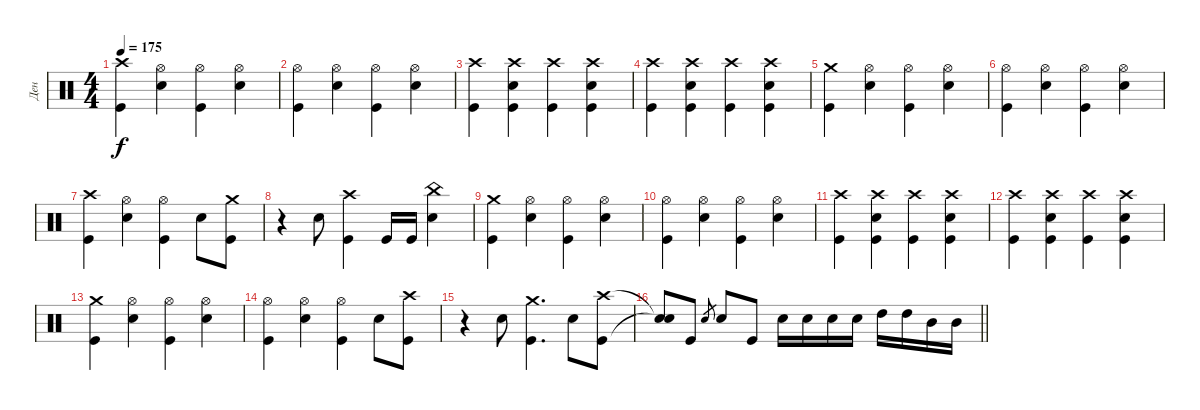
\track ("Ден" "Ден") {instrument percussion}
\staff {score}
\articulation defaults
\ts (4 4)
\tempo 175
\clef neutral
\ks c
("Crash high (hit)" "Kick (hit)").4{dy f} ("Hi-Hat (open)" "Snare (hit) 2").4 ("Hi-Hat (open)" "Kick (hit)").4 ("Hi-Hat (open)" "Snare (hit) 2").4 |
("Hi-Hat (open)" "Kick (hit)").4 ("Hi-Hat (open)" "Snare (hit) 2").4 ("Hi-Hat (open)" "Kick (hit)").4 ("Hi-Hat (open)" "Snare (hit) 2").4 |
("Crash high (hit)" "Kick (hit)").4 ("Crash high (hit)" "Snare (hit) 2" "Kick (hit)").4 ("Crash high (hit)" "Kick (hit)").4 ("Crash high (hit)" "Snare (hit) 2" "Kick (hit)").4 |
("Crash high (hit)" "Kick (hit)").4 ("Crash high (hit)" "Snare (hit) 2" "Kick (hit)").4 ("Crash high (hit)" "Kick (hit)").4 ("Crash high (hit)" "Snare (hit) 2" "Kick (hit)").4 |
("Crash medium (hit)" "Kick (hit)").4 ("Hi-Hat (open)" "Snare (hit) 2").4 ("Hi-Hat (open)" "Kick (hit)").4 ("Hi-Hat (open)" "Snare (hit) 2").4 |
("Hi-Hat (open)" "Kick (hit)").4 ("Hi-Hat (open)" "Snare (hit) 2").4 ("Hi-Hat (open)" "Kick (hit)").4 ("Hi-Hat (open)" "Snare (hit) 2").4 |
("Crash high (hit)" "Kick (hit)").4 ("Hi-Hat (open)" "Snare (hit) 2").4 ("Hi-Hat (open)" "Kick (hit)").4 "Snare (hit) 2".8 ("Crash medium (hit)" "Kick (hit)").8 |
r.4 "Snare (hit) 2".8 ("Crash high (hit)" "Kick (hit)").4 "Kick (hit)".16 "Kick (hit)".16 ("China (hit)" "Snare (hit) 2").4 |
("Crash medium (hit)" "Kick (hit)").4 ("Hi-Hat (open)" "Snare (hit) 2").4 ("Hi-Hat (open)" "Kick (hit)").4 ("Hi-Hat (open)" "Snare (hit) 2").4 |
("Hi-Hat (open)" "Kick (hit)").4 ("Hi-Hat (open)" "Snare (hit) 2").4 ("Hi-Hat (open)" "Kick (hit)").4 ("Hi-Hat (open)" "Snare (hit) 2").4 |
("Crash high (hit)" "Kick (hit)").4 ("Crash high (hit)" "Snare (hit) 2" "Kick (hit)").4 ("Crash high (hit)" "Kick (hit)").4 ("Crash high (hit)" "Snare (hit) 2" "Kick (hit)").4 |
("Crash high (hit)" "Kick (hit)").4 ("Crash high (hit)" "Snare (hit) 2" "Kick (hit)").4 ("Crash high (hit)" "Kick (hit)").4 ("Crash high (hit)" "Snare (hit) 2" "Kick (hit)").4 |
("Crash medium (hit)" "Kick (hit)").4 ("Hi-Hat (open)" "Snare (hit) 2").4 ("Hi-Hat (open)" "Kick (hit)").4 ("Hi-Hat (open)" "Snare (hit) 2").4 |
("Hi-Hat (open)" "Kick (hit)").4 ("Hi-Hat (open)" "Snare (hit) 2").4 ("Hi-Hat (open)" "Kick (hit)").4 "Snare (hit) 2".8 ("Crash high (hit)" "Kick (hit)").8 |
r.4 "Snare (hit) 2".8 ("Crash medium (hit)" "Kick (hit)").4{d} "Snare (hit) 2".8 ("Crash high (hit)" "Kick (hit)").8 |
\barLineRight lightlight
("Snare (hit)"{t} "Snare (hit)"{t}).8 "Kick (hit)".8 "Snare (hit) 2".8{gr} "Snare (hit) 2".8 "Kick (hit)".8 "Snare (hit) 2".16 "Snare (hit) 2".16 "Snare (hit) 2".16 "Snare (hit) 2".16 "High Tom (hit)".16 "High Tom (hit)".16 "Mid Tom (hit)".16 "Mid Tom (hit)".16
